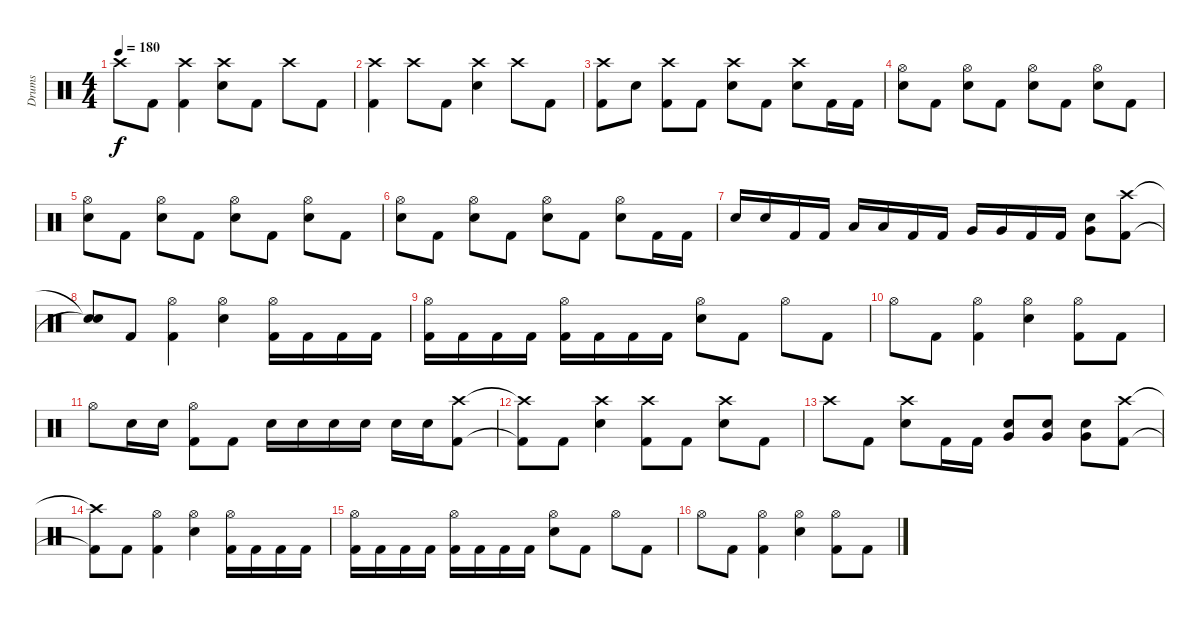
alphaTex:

\track ("Drums" "Drums") {instrument percussion}
\staff {score}
\articulation defaults
\ts (4 4)
\tempo 180
\clef neutral
\ks c "Crash high (hit)".8{dy f} "Kick (hit) 2".8
("Crash high (hit)" "Kick (hit) 2").4 ("Crash high (hit)" "Electric Snare (hit)").8 "Kick (hit) 2".8 "Crash high (hit)".8 "Kick (hit) 2".8 |
("Crash high (hit)" "Kick (hit) 2").4 "Crash high (hit)".8 "Kick (hit) 2".8 ("Crash high (hit)" "Electric Snare (hit)").4 "Crash high (hit)".8 "Kick (hit) 2".8 |
("Crash high (hit)" "Kick (hit) 2").8 "Electric Snare (hit)".8 ("Crash high (hit)" "Kick (hit) 2").8 "Kick (hit) 2".8 ("Crash high (hit)" "Electric Snare (hit)").8 "Kick (hit) 2".8 ("Crash high (hit)" "Electric Snare (hit)").8 "Kick (hit) 2".16 "Kick (hit) 2".16 |
("Hi-Hat (open)" "Electric Snare (hit)").8 "Kick (hit) 2".8 ("Hi-Hat (open)" "Electric Snare (hit)").8 "Kick (hit) 2".8 ("Hi-Hat (open)" "Electric Snare (hit)").8 "Kick (hit) 2".8 ("Hi-Hat (open)" "Electric Snare (hit)").8 "Kick (hit) 2".8 |
("Hi-Hat (open)" "Electric Snare (hit)").8 "Kick (hit) 2".8 ("Hi-Hat (open)" "Electric Snare (hit)").8 "Kick (hit) 2".8 ("Hi-Hat (open)" "Electric Snare (hit)").8 "Kick (hit) 2".8 ("Hi-Hat (open)" "Electric Snare (hit)").8 "Kick (hit) 2".8 |
("Hi-Hat (open)" "Electric Snare (hit)").8 "Kick (hit) 2".8 ("Hi-Hat (open)" "Electric Snare (hit)").8 "Kick (hit) 2".8 ("Hi-Hat (open)" "Electric Snare (hit)").8 "Kick (hit) 2".8 ("Hi-Hat (open)" "Electric Snare (hit)").8 "Kick (hit) 2".16 "Kick (hit) 2".16 |
"Electric Snare (hit)".16 "Electric Snare (hit)".16 "Kick (hit) 2".16 "Kick (hit) 2".16 "Low Tom (hit)".16 "Low Tom (hit)".16 "Kick (hit) 2".16 "Kick (hit) 2".16 "Very Low Tom (hit)".16 "Very Low Tom (hit)".16 "Kick (hit) 2".16 "Kick (hit) 2".16 ("Very Low Tom (hit)" "Electric Snare (hit)").8 ("Crash high (hit)" "Kick (hit) 2").8 |
("Snare (hit)"{t} "Snare (hit)"{t}).8 "Kick (hit) 2".8 ("Hi-Hat (open)" "Kick (hit) 2").4 ("Hi-Hat (open)" "Electric Snare (hit)").4 ("Hi-Hat (open)" "Kick (hit) 2").16 "Kick (hit) 2".16 "Kick (hit) 2".16 "Kick (hit) 2".16 |
("Hi-Hat (open)" "Kick (hit) 2").16 "Kick (hit) 2".16 "Kick (hit) 2".16 "Kick (hit) 2".16 ("Hi-Hat (open)" "Kick (hit) 2").16 "Kick (hit) 2".16 "Kick (hit) 2".16 "Kick (hit) 2".16 ("Hi-Hat (open)" "Electric Snare (hit)").8 "Kick (hit) 2".8 "Hi-Hat (open)".8 "Kick (hit) 2".8 |
"Hi-Hat (open)".8 "Kick (hit) 2".8 ("Hi-Hat (open)" "Kick (hit) 2").4 ("Hi-Hat (open)" "Electric Snare (hit)").4 ("Hi-Hat (open)" "Kick (hit) 2").8 "Kick (hit) 2".8 |
"Hi-Hat (open)".8 "Electric Snare (hit)".16 "Electric Snare (hit)".16 ("Hi-Hat (open)" "Kick (hit) 2").8 "Kick (hit) 2".8 "Electric Snare (hit)".16 "Electric Snare (hit)".16 "Electric Snare (hit)".16 "Electric Snare (hit)".16 "Electric Snare (hit)".16 "Electric Snare (hit)".16 ("Crash high (hit)" "Kick (hit) 2").8 |
("Crash high (hit)"{t} "Kick (hit) 2"{t}).8 "Kick (hit) 2".8 ("Crash high (hit)" "Electric Snare (hit)").4 ("Crash high (hit)" "Kick (hit) 2").8 "Kick (hit) 2".8 ("Crash high (hit)" "Electric Snare (hit)").8 "Kick (hit) 2".8 |
"Crash high (hit)".8 "Kick (hit) 2".8 ("Crash high (hit)" "Electric Snare (hit)").8 "Kick (hit) 2".16 "Kick (hit) 2".16 ("Very Low Tom (hit)" "Electric Snare (hit)").8 ("Very Low Tom (hit)" "Electric Snare (hit)").8 ("Very Low Tom (hit)" "Electric Snare (hit)").8 ("Crash high (hit)" "Kick (hit) 2").8 |
("Crash high (hit)"{t} "Kick (hit) 2"{t}).8 "Kick (hit) 2".8 ("Hi-Hat (open)" "Kick (hit) 2").4 ("Hi-Hat (open)" "Electric Snare (hit)").4 ("Hi-Hat (open)" "Kick (hit) 2").16 "Kick (hit) 2".16 "Kick (hit) 2".16 "Kick (hit) 2".16 |
("Hi-Hat (open)" "Kick (hit) 2").16 "Kick (hit) 2".16 "Kick (hit) 2".16 "Kick (hit) 2".16 ("Hi-Hat (open)" "Kick (hit) 2").16 "Kick (hit) 2".16 "Kick (hit) 2".16 "Kick (hit) 2".16 ("Hi-Hat (open)" "Electric Snare (hit)").8 "Kick (hit) 2".8 "Hi-Hat (open)".8 "Kick (hit) 2".8 |
"Hi-Hat (open)".8 "Kick (hit) 2".8 ("Hi-Hat (open)" "Kick (hit) 2").4 ("Hi-Hat (open)" "Electric Snare (hit)").4 ("Hi-Hat (open)" "Kick (hit) 2").8 "Kick (hit) 2".8
